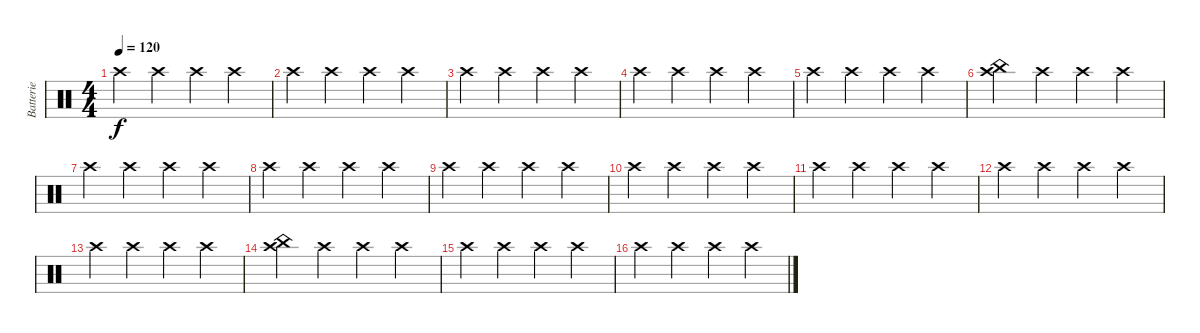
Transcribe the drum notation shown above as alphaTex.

\track ("Batterie" "Batterie") {instrument percussion}
\staff {score}
\articulation defaults
\ts (4 4)
\tempo 120
\clef neutral
\ks c "Crash high (hit)".4{dy f} "Crash high (hit)".4 "Crash high (hit)".4 "Crash high (hit)".4
|
"Crash high (hit)".4 "Crash high (hit)".4 "Crash high (hit)".4 "Crash high (hit)".4 |
"Crash high (hit)".4 "Crash high (hit)".4 "Crash high (hit)".4 "Crash high (hit)".4 |
"Crash high (hit)".4 "Crash high (hit)".4 "Crash high (hit)".4 "Crash high (hit)".4 |
"Crash high (hit)".4 "Crash high (hit)".4 "Crash high (hit)".4 "Crash high (hit)".4 |
("China (hit)" "Crash high (hit)").4 "Crash high (hit)".4 "Crash high (hit)".4 "Crash high (hit)".4 |
"Crash high (hit)".4 "Crash high (hit)".4 "Crash high (hit)".4 "Crash high (hit)".4 |
"Crash high (hit)".4 "Crash high (hit)".4 "Crash high (hit)".4 "Crash high (hit)".4 |
"Crash high (hit)".4 "Crash high (hit)".4 "Crash high (hit)".4 "Crash high (hit)".4 |
"Crash high (hit)".4 "Crash high (hit)".4 "Crash high (hit)".4 "Crash high (hit)".4 |
"Crash high (hit)".4 "Crash high (hit)".4 "Crash high (hit)".4 "Crash high (hit)".4 |
"Crash high (hit)".4 "Crash high (hit)".4 "Crash high (hit)".4 "Crash high (hit)".4 |
"Crash high (hit)".4 "Crash high (hit)".4 "Crash high (hit)".4 "Crash high (hit)".4 |
("China (hit)" "Crash high (hit)").4 "Crash high (hit)".4 "Crash high (hit)".4 "Crash high (hit)".4 |
"Crash high (hit)".4 "Crash high (hit)".4 "Crash high (hit)".4 "Crash high (hit)".4 |
"Crash high (hit)".4 "Crash high (hit)".4 "Crash high (hit)".4 "Crash high (hit)".4
